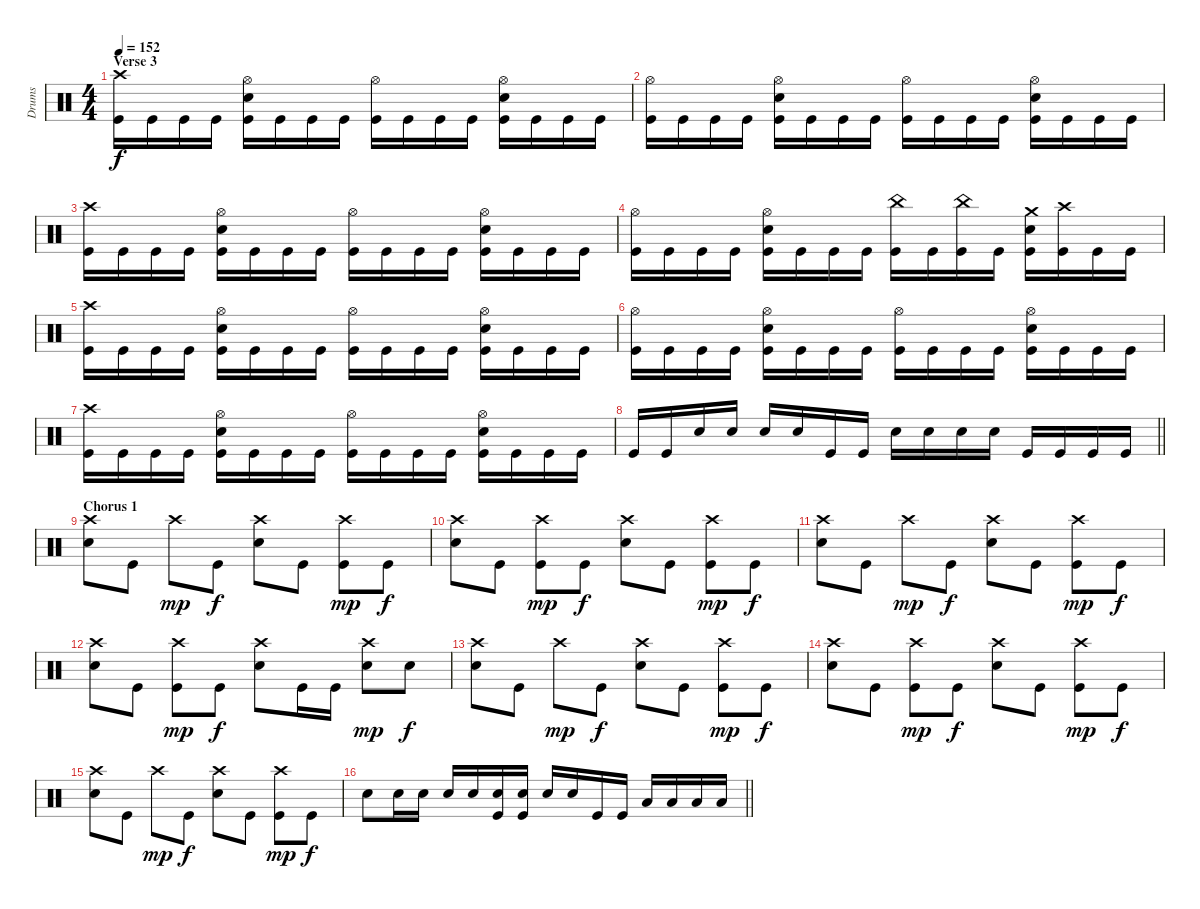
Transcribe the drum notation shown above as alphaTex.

\track ("Drums" "Drums") {instrument percussion}
\staff {score}
\articulation defaults
\ts (4 4)
\section ("" "Verse 3")
\tempo 152
\clef neutral
\ks c
("Crash high (hit)" "Kick (hit)").16{dy f} "Kick (hit)".16 "Kick (hit)".16 "Kick (hit)".16 ("Snare (hit) 2" "Hi-Hat (open)" "Kick (hit)").16 "Kick (hit)".16 "Kick (hit)".16 "Kick (hit)".16 ("Hi-Hat (open)" "Kick (hit)").16 "Kick (hit)".16 "Kick (hit)".16 "Kick (hit)".16 ("Hi-Hat (open)" "Snare (hit) 2" "Kick (hit)").16 "Kick (hit)".16 "Kick (hit)".16 "Kick (hit)".16 |
("Hi-Hat (open)" "Kick (hit)").16 "Kick (hit)".16 "Kick (hit)".16 "Kick (hit)".16 ("Snare (hit) 2" "Hi-Hat (open)" "Kick (hit)").16 "Kick (hit)".16 "Kick (hit)".16 "Kick (hit)".16 ("Hi-Hat (open)" "Kick (hit)").16 "Kick (hit)".16 "Kick (hit)".16 "Kick (hit)".16 ("Hi-Hat (open)" "Snare (hit) 2" "Kick (hit)").16 "Kick (hit)".16 "Kick (hit)".16 "Kick (hit)".16 |
("Crash high (hit)" "Kick (hit)").16 "Kick (hit)".16 "Kick (hit)".16 "Kick (hit)".16 ("Snare (hit) 2" "Hi-Hat (open)" "Kick (hit)").16 "Kick (hit)".16 "Kick (hit)".16 "Kick (hit)".16 ("Hi-Hat (open)" "Kick (hit)").16 "Kick (hit)".16 "Kick (hit)".16 "Kick (hit)".16 ("Hi-Hat (open)" "Snare (hit) 2" "Kick (hit)").16 "Kick (hit)".16 "Kick (hit)".16 "Kick (hit)".16 |
("Hi-Hat (open)" "Kick (hit)").16 "Kick (hit)".16 "Kick (hit)".16 "Kick (hit)".16 ("Snare (hit) 2" "Hi-Hat (open)" "Kick (hit)").16 "Kick (hit)".16 "Kick (hit)".16 "Kick (hit)".16 ("China (hit)" "Kick (hit)").16 "Kick (hit)".16 ("China (hit)" "Kick (hit)").16 "Kick (hit)".16 ("Crash medium (hit)" "Snare (hit) 2" "Kick (hit)").16 ("Crash high (hit)" "Kick (hit)").16 "Kick (hit)".16 "Kick (hit)".16 |
("Crash high (hit)" "Kick (hit)").16 "Kick (hit)".16 "Kick (hit)".16 "Kick (hit)".16 ("Snare (hit) 2" "Hi-Hat (open)" "Kick (hit)").16 "Kick (hit)".16 "Kick (hit)".16 "Kick (hit)".16 ("Hi-Hat (open)" "Kick (hit)").16 "Kick (hit)".16 "Kick (hit)".16 "Kick (hit)".16 ("Hi-Hat (open)" "Snare (hit) 2" "Kick (hit)").16 "Kick (hit)".16 "Kick (hit)".16 "Kick (hit)".16 |
("Hi-Hat (open)" "Kick (hit)").16 "Kick (hit)".16 "Kick (hit)".16 "Kick (hit)".16 ("Snare (hit) 2" "Hi-Hat (open)" "Kick (hit)").16 "Kick (hit)".16 "Kick (hit)".16 "Kick (hit)".16 ("Hi-Hat (open)" "Kick (hit)").16 "Kick (hit)".16 "Kick (hit)".16 "Kick (hit)".16 ("Hi-Hat (open)" "Snare (hit) 2" "Kick (hit)").16 "Kick (hit)".16 "Kick (hit)".16 "Kick (hit)".16 |
("Crash high (hit)" "Kick (hit)").16 "Kick (hit)".16 "Kick (hit)".16 "Kick (hit)".16 ("Snare (hit) 2" "Hi-Hat (open)" "Kick (hit)").16 "Kick (hit)".16 "Kick (hit)".16 "Kick (hit)".16 ("Hi-Hat (open)" "Kick (hit)").16 "Kick (hit)".16 "Kick (hit)".16 "Kick (hit)".16 ("Hi-Hat (open)" "Snare (hit) 2" "Kick (hit)").16 "Kick (hit)".16 "Kick (hit)".16 "Kick (hit)".16 |
\barLineRight lightlight "Kick (hit)".16 "Kick (hit)".16 "Snare (hit) 2".16 "Snare (hit) 2".16 "Snare (hit) 2".16 "Snare (hit) 2".16 "Kick (hit)".16 "Kick (hit)".16 "Snare (hit) 2".16 "Snare (hit) 2".16 "Snare (hit) 2".16 "Snare (hit) 2".16 "Kick (hit)".16 "Kick (hit)".16 "Kick (hit)".16 "Kick (hit)".16
|
\section ("" "Chorus 1")
("Crash high (hit)" "Snare (hit) 2").8 "Kick (hit)".8 "Crash high (hit)".8{dy mp} "Kick (hit)".8{dy f} ("Snare (hit) 2" "Crash high (hit)").8 "Kick (hit)".8 ("Kick (hit)" "Crash high (hit)").8{dy mp} "Kick (hit)".8{dy f} |
("Snare (hit) 2" "Crash high (hit)").8 "Kick (hit)".8 ("Kick (hit)" "Crash high (hit)").8{dy mp} "Kick (hit)".8{dy f} ("Snare (hit) 2" "Crash high (hit)").8 "Kick (hit)".8 ("Kick (hit)" "Crash high (hit)").8{dy mp} "Kick (hit)".8{dy f} |
("Crash high (hit)" "Snare (hit) 2").8 "Kick (hit)".8 "Crash high (hit)".8{dy mp} "Kick (hit)".8{dy f} ("Snare (hit) 2" "Crash high (hit)").8 "Kick (hit)".8 ("Kick (hit)" "Crash high (hit)").8{dy mp} "Kick (hit)".8{dy f} |
("Snare (hit) 2" "Crash high (hit)").8 "Kick (hit)".8 ("Kick (hit)" "Crash high (hit)").8{dy mp} "Kick (hit)".8{dy f} ("Snare (hit) 2" "Crash high (hit)").8 "Kick (hit)".16 "Kick (hit)".16 ("Crash high (hit)" "Snare (hit) 2").8{dy mp} "Snare (hit) 2".8{dy f} |
("Crash high (hit)" "Snare (hit) 2").8 "Kick (hit)".8 "Crash high (hit)".8{dy mp} "Kick (hit)".8{dy f} ("Snare (hit) 2" "Crash high (hit)").8 "Kick (hit)".8 ("Kick (hit)" "Crash high (hit)").8{dy mp} "Kick (hit)".8{dy f} |
("Snare (hit) 2" "Crash high (hit)").8 "Kick (hit)".8 ("Kick (hit)" "Crash high (hit)").8{dy mp} "Kick (hit)".8{dy f} ("Snare (hit) 2" "Crash high (hit)").8 "Kick (hit)".8 ("Kick (hit)" "Crash high (hit)").8{dy mp} "Kick (hit)".8{dy f} |
("Crash high (hit)" "Snare (hit) 2").8 "Kick (hit)".8 "Crash high (hit)".8{dy mp} "Kick (hit)".8{dy f} ("Snare (hit) 2" "Crash high (hit)").8 "Kick (hit)".8 ("Kick (hit)" "Crash high (hit)").8{dy mp} "Kick (hit)".8{dy f} |
\barLineRight lightlight "Snare (hit) 2".8 "Snare (hit) 2".16 "Snare (hit) 2".16 "Snare (hit) 2".16 "Snare (hit) 2".16
("Snare (hit) 2" "Kick (hit)").16 ("Snare (hit) 2" "Kick (hit)").16 "Snare (hit) 2".16 "Snare (hit) 2".16 "Kick (hit)".16 "Kick (hit)".16 "Low Tom (hit)".16 "Low Tom (hit)".16 "Low Tom (hit)".16 "Low Tom (hit)".16
